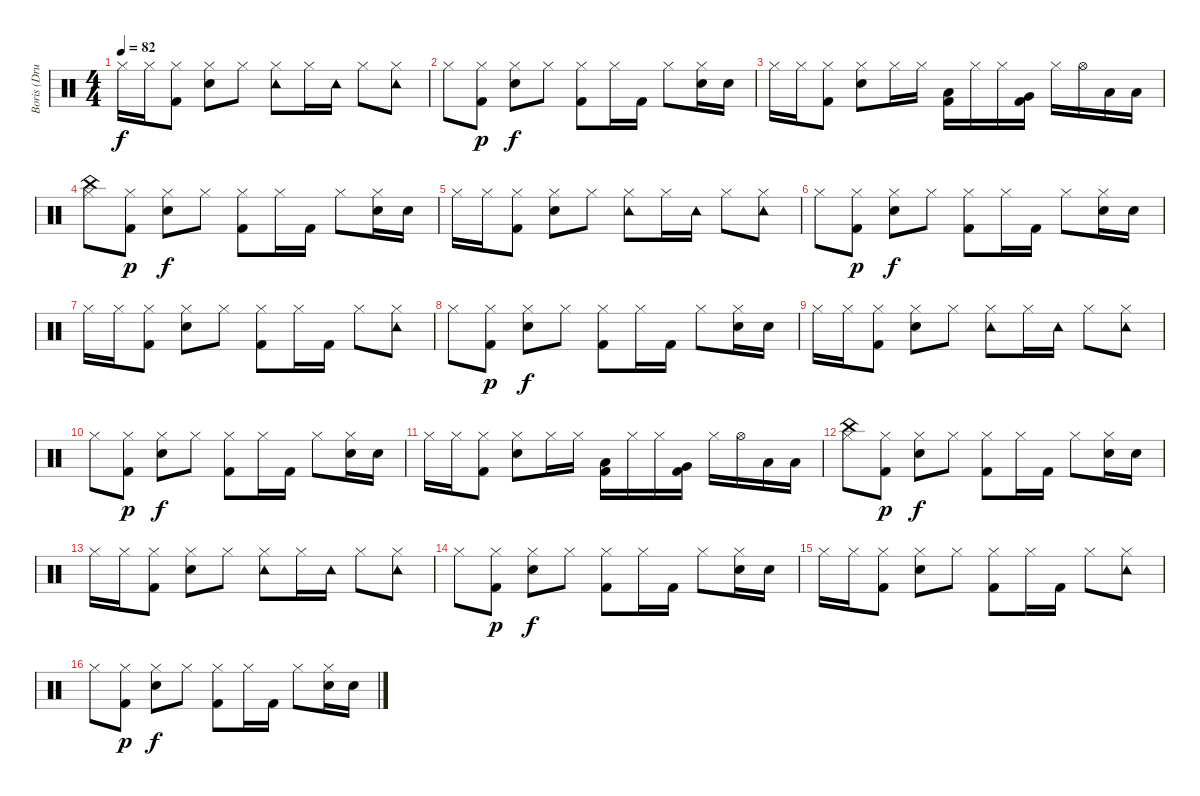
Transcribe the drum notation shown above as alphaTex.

\track ("Boris (Drums)" "Boris (Dru") {instrument percussion}
\staff {score}
\articulation defaults
\ts (4 4)
\tempo 82
\clef neutral
\ks c "Hi-Hat (closed)".16{dy f} "Hi-Hat (closed)".16
("Kick (hit) 2" "Hi-Hat (closed)").8 ("Snare (hit) 2" "Hi-Hat (closed)").8 "Hi-Hat (closed)".8 ("Tambourine (hit)" "Hi-Hat (closed)").8 "Hi-Hat (closed)".16 "Tambourine (hit)".16 "Hi-Hat (closed)".8 ("Tambourine (hit)" "Hi-Hat (closed)").8 |
"Hi-Hat (closed)".8 ("Hi-Hat (closed)" "Kick (hit) 2").8{dy p} ("Snare (hit) 2" "Hi-Hat (closed)").8{dy f} "Hi-Hat (closed)".8 ("Kick (hit) 2" "Hi-Hat (closed)").8 "Hi-Hat (closed)".16 "Kick (hit) 2".16 "Hi-Hat (closed)".8 ("Hand Clap (hit)" "Hi-Hat (closed)").16 "Hand Clap (hit)".16 |
"Hi-Hat (closed)".16 "Hi-Hat (closed)".16 ("Kick (hit) 2" "Hi-Hat (closed)").8 ("Snare (hit) 2" "Hi-Hat (closed)").8 "Hi-Hat (closed)".16 "Hi-Hat (closed)".16 ("Low Tom (hit)" "Kick (hit) 2").16 "Hi-Hat (closed)".16 "Hi-Hat (closed)".16 ("Very Low Tom (hit)" "Kick (hit) 2").16 "Hi-Hat (closed)".16 "Hi-Hat (open)".16 "Low Floor Tom (hit)".16 "Low Floor Tom (hit)".16 |
("China (hit)" "Hi-Hat (closed)").8 ("Hi-Hat (closed)" "Kick (hit) 2").8{dy p} ("Snare (hit) 2" "Hi-Hat (closed)").8{dy f} "Hi-Hat (closed)".8 ("Kick (hit) 2" "Hi-Hat (closed)").8 "Hi-Hat (closed)".16 "Kick (hit) 2".16 "Hi-Hat (closed)".8 ("Hand Clap (hit)" "Hi-Hat (closed)").16 "Hand Clap (hit)".16 |
"Hi-Hat (closed)".16 "Hi-Hat (closed)".16 ("Kick (hit) 2" "Hi-Hat (closed)").8 ("Snare (hit) 2" "Hi-Hat (closed)").8 "Hi-Hat (closed)".8 ("Tambourine (hit)" "Hi-Hat (closed)").8 "Hi-Hat (closed)".16 "Tambourine (hit)".16 "Hi-Hat (closed)".8 ("Tambourine (hit)" "Hi-Hat (closed)").8 |
"Hi-Hat (closed)".8 ("Hi-Hat (closed)" "Kick (hit) 2").8{dy p} ("Snare (hit) 2" "Hi-Hat (closed)").8{dy f} "Hi-Hat (closed)".8 ("Kick (hit) 2" "Hi-Hat (closed)").8 "Hi-Hat (closed)".16 "Kick (hit) 2".16 "Hi-Hat (closed)".8 ("Hand Clap (hit)" "Hi-Hat (closed)").16 "Hand Clap (hit)".16 |
"Hi-Hat (closed)".16 "Hi-Hat (closed)".16 ("Kick (hit) 2" "Hi-Hat (closed)").8 ("Snare (hit) 2" "Hi-Hat (closed)").8 "Hi-Hat (closed)".8 ("Kick (hit) 2" "Hi-Hat (closed)").8 "Hi-Hat (closed)".16 "Kick (hit) 2".16 "Hi-Hat (closed)".8 ("Tambourine (hit)" "Hi-Hat (closed)").8 |
"Hi-Hat (closed)".8 ("Hi-Hat (closed)" "Kick (hit) 2").8{dy p} ("Snare (hit) 2" "Hi-Hat (closed)").8{dy f} "Hi-Hat (closed)".8 ("Kick (hit) 2" "Hi-Hat (closed)").8 "Hi-Hat (closed)".16 "Kick (hit) 2".16 "Hi-Hat (closed)".8 ("Hand Clap (hit)" "Hi-Hat (closed)").16 "Hand Clap (hit)".16 |
"Hi-Hat (closed)".16 "Hi-Hat (closed)".16 ("Kick (hit) 2" "Hi-Hat (closed)").8 ("Snare (hit) 2" "Hi-Hat (closed)").8 "Hi-Hat (closed)".8 ("Tambourine (hit)" "Hi-Hat (closed)").8 "Hi-Hat (closed)".16 "Tambourine (hit)".16 "Hi-Hat (closed)".8 ("Tambourine (hit)" "Hi-Hat (closed)").8 |
"Hi-Hat (closed)".8 ("Hi-Hat (closed)" "Kick (hit) 2").8{dy p} ("Snare (hit) 2" "Hi-Hat (closed)").8{dy f} "Hi-Hat (closed)".8 ("Kick (hit) 2" "Hi-Hat (closed)").8 "Hi-Hat (closed)".16 "Kick (hit) 2".16 "Hi-Hat (closed)".8 ("Hand Clap (hit)" "Hi-Hat (closed)").16 "Hand Clap (hit)".16 |
"Hi-Hat (closed)".16 "Hi-Hat (closed)".16 ("Kick (hit) 2" "Hi-Hat (closed)").8 ("Snare (hit) 2" "Hi-Hat (closed)").8 "Hi-Hat (closed)".16 "Hi-Hat (closed)".16 ("Low Tom (hit)" "Kick (hit) 2").16 "Hi-Hat (closed)".16 "Hi-Hat (closed)".16 ("Very Low Tom (hit)" "Kick (hit) 2").16 "Hi-Hat (closed)".16 "Hi-Hat (open)".16 "Low Floor Tom (hit)".16 "Low Floor Tom (hit)".16 |
("China (hit)" "Hi-Hat (closed)").8 ("Hi-Hat (closed)" "Kick (hit) 2").8{dy p} ("Snare (hit) 2" "Hi-Hat (closed)").8{dy f} "Hi-Hat (closed)".8 ("Kick (hit) 2" "Hi-Hat (closed)").8 "Hi-Hat (closed)".16 "Kick (hit) 2".16 "Hi-Hat (closed)".8 ("Hand Clap (hit)" "Hi-Hat (closed)").16 "Hand Clap (hit)".16 |
"Hi-Hat (closed)".16 "Hi-Hat (closed)".16 ("Kick (hit) 2" "Hi-Hat (closed)").8 ("Snare (hit) 2" "Hi-Hat (closed)").8 "Hi-Hat (closed)".8 ("Tambourine (hit)" "Hi-Hat (closed)").8 "Hi-Hat (closed)".16 "Tambourine (hit)".16 "Hi-Hat (closed)".8 ("Tambourine (hit)" "Hi-Hat (closed)").8 |
"Hi-Hat (closed)".8 ("Hi-Hat (closed)" "Kick (hit) 2").8{dy p} ("Snare (hit) 2" "Hi-Hat (closed)").8{dy f} "Hi-Hat (closed)".8 ("Kick (hit) 2" "Hi-Hat (closed)").8 "Hi-Hat (closed)".16 "Kick (hit) 2".16 "Hi-Hat (closed)".8 ("Hand Clap (hit)" "Hi-Hat (closed)").16 "Hand Clap (hit)".16 |
"Hi-Hat (closed)".16 "Hi-Hat (closed)".16 ("Kick (hit) 2" "Hi-Hat (closed)").8 ("Snare (hit) 2" "Hi-Hat (closed)").8 "Hi-Hat (closed)".8 ("Kick (hit) 2" "Hi-Hat (closed)").8 "Hi-Hat (closed)".16 "Kick (hit) 2".16 "Hi-Hat (closed)".8 ("Tambourine (hit)" "Hi-Hat (closed)").8 |
"Hi-Hat (closed)".8 ("Hi-Hat (closed)" "Kick (hit) 2").8{dy p} ("Snare (hit) 2" "Hi-Hat (closed)").8{dy f} "Hi-Hat (closed)".8 ("Kick (hit) 2" "Hi-Hat (closed)").8 "Hi-Hat (closed)".16 "Kick (hit) 2".16 "Hi-Hat (closed)".8 ("Hand Clap (hit)" "Hi-Hat (closed)").16 "Hand Clap (hit)".16
